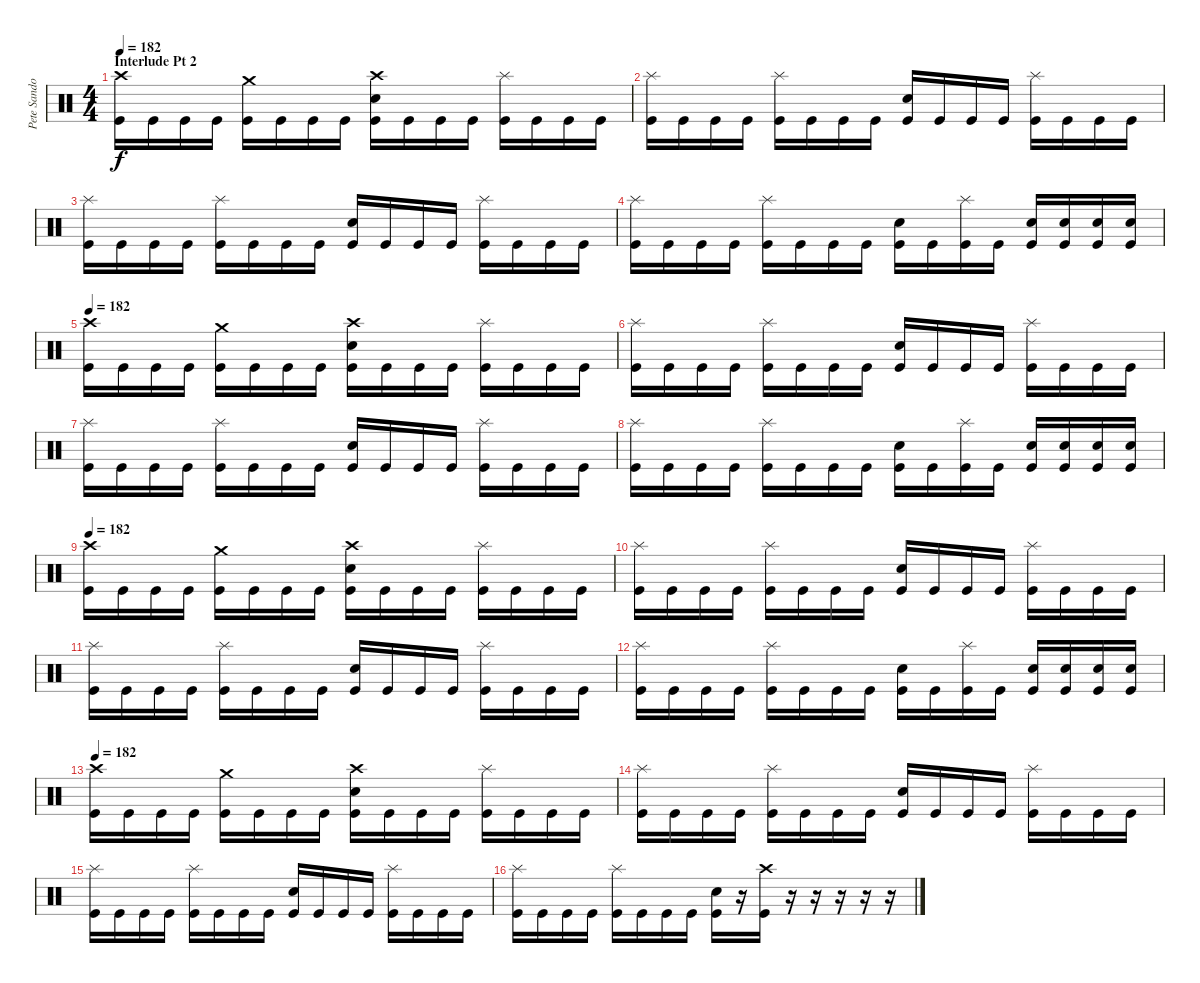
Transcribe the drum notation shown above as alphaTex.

\track ("Pete Sandoval" "Pete Sando") {instrument percussion}
\staff {score}
\articulation defaults
\ts (4 4)
\section ("" "Interlude Pt 2")
\tempo 182
\clef neutral
\ks c
("Crash high (hit)" "Kick (hit)").16{dy f} "Kick (hit)".16 "Kick (hit)".16 "Kick (hit)".16 ("Crash medium (hit)" "Kick (hit)").16 "Kick (hit)".16 "Kick (hit)".16 "Kick (hit)".16 ("Crash high (hit)" "Electric Snare (hit)" "Kick (hit)").16 "Kick (hit)".16 "Kick (hit)".16 "Kick (hit)".16 ("Splash (hit)" "Kick (hit)").16 "Kick (hit)".16 "Kick (hit)".16 "Kick (hit)".16 |
("Splash (hit)" "Kick (hit)").16 "Kick (hit)".16 "Kick (hit)".16 "Kick (hit)".16 ("Splash (hit)" "Kick (hit)").16 "Kick (hit)".16 "Kick (hit)".16 "Kick (hit)".16 ("Electric Snare (hit)" "Kick (hit)").16 "Kick (hit)".16 "Kick (hit)".16 "Kick (hit)".16 ("Splash (hit)" "Kick (hit)").16 "Kick (hit)".16 "Kick (hit)".16 "Kick (hit)".16 |
("Splash (hit)" "Kick (hit)").16 "Kick (hit)".16 "Kick (hit)".16 "Kick (hit)".16 ("Splash (hit)" "Kick (hit)").16 "Kick (hit)".16 "Kick (hit)".16 "Kick (hit)".16 ("Electric Snare (hit)" "Kick (hit)").16 "Kick (hit)".16 "Kick (hit)".16 "Kick (hit)".16 ("Splash (hit)" "Kick (hit)").16 "Kick (hit)".16 "Kick (hit)".16 "Kick (hit)".16 |
("Splash (hit)" "Kick (hit)").16 "Kick (hit)".16 "Kick (hit)".16 "Kick (hit)".16 ("Splash (hit)" "Kick (hit)").16 "Kick (hit)".16 "Kick (hit)".16 "Kick (hit)".16 ("Electric Snare (hit)" "Kick (hit)").16 "Kick (hit)".16 ("Splash (hit)" "Kick (hit)").16 "Kick (hit)".16 ("Electric Snare (hit)" "Kick (hit)").16 ("Electric Snare (hit)" "Kick (hit)").16 ("Electric Snare (hit)" "Kick (hit)").16 ("Electric Snare (hit)" "Kick (hit)").16 |
\tempo 182
("Crash high (hit)" "Kick (hit)").16 "Kick (hit)".16 "Kick (hit)".16 "Kick (hit)".16 ("Crash medium (hit)" "Kick (hit)").16 "Kick (hit)".16 "Kick (hit)".16 "Kick (hit)".16 ("Crash high (hit)" "Electric Snare (hit)" "Kick (hit)").16 "Kick (hit)".16 "Kick (hit)".16 "Kick (hit)".16 ("Splash (hit)" "Kick (hit)").16 "Kick (hit)".16 "Kick (hit)".16 "Kick (hit)".16 |
("Splash (hit)" "Kick (hit)").16 "Kick (hit)".16 "Kick (hit)".16 "Kick (hit)".16 ("Splash (hit)" "Kick (hit)").16 "Kick (hit)".16 "Kick (hit)".16 "Kick (hit)".16 ("Electric Snare (hit)" "Kick (hit)").16 "Kick (hit)".16 "Kick (hit)".16 "Kick (hit)".16 ("Splash (hit)" "Kick (hit)").16 "Kick (hit)".16 "Kick (hit)".16 "Kick (hit)".16 |
("Splash (hit)" "Kick (hit)").16 "Kick (hit)".16 "Kick (hit)".16 "Kick (hit)".16 ("Splash (hit)" "Kick (hit)").16 "Kick (hit)".16 "Kick (hit)".16 "Kick (hit)".16 ("Electric Snare (hit)" "Kick (hit)").16 "Kick (hit)".16 "Kick (hit)".16 "Kick (hit)".16 ("Splash (hit)" "Kick (hit)").16 "Kick (hit)".16 "Kick (hit)".16 "Kick (hit)".16 |
("Splash (hit)" "Kick (hit)").16 "Kick (hit)".16 "Kick (hit)".16 "Kick (hit)".16 ("Splash (hit)" "Kick (hit)").16 "Kick (hit)".16 "Kick (hit)".16 "Kick (hit)".16 ("Electric Snare (hit)" "Kick (hit)").16 "Kick (hit)".16 ("Splash (hit)" "Kick (hit)").16 "Kick (hit)".16 ("Electric Snare (hit)" "Kick (hit)").16 ("Electric Snare (hit)" "Kick (hit)").16 ("Electric Snare (hit)" "Kick (hit)").16 ("Electric Snare (hit)" "Kick (hit)").16 |
\tempo 182
("Crash high (hit)" "Kick (hit)").16 "Kick (hit)".16 "Kick (hit)".16 "Kick (hit)".16 ("Crash medium (hit)" "Kick (hit)").16 "Kick (hit)".16 "Kick (hit)".16 "Kick (hit)".16 ("Crash high (hit)" "Electric Snare (hit)" "Kick (hit)").16 "Kick (hit)".16 "Kick (hit)".16 "Kick (hit)".16 ("Splash (hit)" "Kick (hit)").16 "Kick (hit)".16 "Kick (hit)".16 "Kick (hit)".16 |
("Splash (hit)" "Kick (hit)").16 "Kick (hit)".16 "Kick (hit)".16 "Kick (hit)".16 ("Splash (hit)" "Kick (hit)").16 "Kick (hit)".16 "Kick (hit)".16 "Kick (hit)".16 ("Electric Snare (hit)" "Kick (hit)").16 "Kick (hit)".16 "Kick (hit)".16 "Kick (hit)".16 ("Splash (hit)" "Kick (hit)").16 "Kick (hit)".16 "Kick (hit)".16 "Kick (hit)".16 |
("Splash (hit)" "Kick (hit)").16 "Kick (hit)".16 "Kick (hit)".16 "Kick (hit)".16 ("Splash (hit)" "Kick (hit)").16 "Kick (hit)".16 "Kick (hit)".16 "Kick (hit)".16 ("Electric Snare (hit)" "Kick (hit)").16 "Kick (hit)".16 "Kick (hit)".16 "Kick (hit)".16 ("Splash (hit)" "Kick (hit)").16 "Kick (hit)".16 "Kick (hit)".16 "Kick (hit)".16 |
("Splash (hit)" "Kick (hit)").16 "Kick (hit)".16 "Kick (hit)".16 "Kick (hit)".16 ("Splash (hit)" "Kick (hit)").16 "Kick (hit)".16 "Kick (hit)".16 "Kick (hit)".16 ("Electric Snare (hit)" "Kick (hit)").16 "Kick (hit)".16 ("Splash (hit)" "Kick (hit)").16 "Kick (hit)".16 ("Electric Snare (hit)" "Kick (hit)").16 ("Electric Snare (hit)" "Kick (hit)").16 ("Electric Snare (hit)" "Kick (hit)").16 ("Electric Snare (hit)" "Kick (hit)").16 |
\tempo 182
("Crash high (hit)" "Kick (hit)").16 "Kick (hit)".16 "Kick (hit)".16 "Kick (hit)".16 ("Crash medium (hit)" "Kick (hit)").16 "Kick (hit)".16 "Kick (hit)".16 "Kick (hit)".16 ("Crash high (hit)" "Electric Snare (hit)" "Kick (hit)").16 "Kick (hit)".16 "Kick (hit)".16 "Kick (hit)".16 ("Splash (hit)" "Kick (hit)").16 "Kick (hit)".16 "Kick (hit)".16 "Kick (hit)".16 |
("Splash (hit)" "Kick (hit)").16 "Kick (hit)".16 "Kick (hit)".16 "Kick (hit)".16 ("Splash (hit)" "Kick (hit)").16 "Kick (hit)".16 "Kick (hit)".16 "Kick (hit)".16 ("Electric Snare (hit)" "Kick (hit)").16 "Kick (hit)".16 "Kick (hit)".16 "Kick (hit)".16 ("Splash (hit)" "Kick (hit)").16 "Kick (hit)".16 "Kick (hit)".16 "Kick (hit)".16 |
("Splash (hit)" "Kick (hit)").16 "Kick (hit)".16 "Kick (hit)".16 "Kick (hit)".16 ("Splash (hit)" "Kick (hit)").16 "Kick (hit)".16 "Kick (hit)".16 "Kick (hit)".16 ("Electric Snare (hit)" "Kick (hit)").16 "Kick (hit)".16 "Kick (hit)".16 "Kick (hit)".16 ("Splash (hit)" "Kick (hit)").16 "Kick (hit)".16 "Kick (hit)".16 "Kick (hit)".16 |
("Splash (hit)" "Kick (hit)").16 "Kick (hit)".16 "Kick (hit)".16 "Kick (hit)".16 ("Splash (hit)" "Kick (hit)").16 "Kick (hit)".16 "Kick (hit)".16 "Kick (hit)".16 ("Electric Snare (hit)" "Kick (hit)").16 r.16 ("Crash high (hit)" "Kick (hit)").16 r.16 r.16 r.16 r.16 r.16
